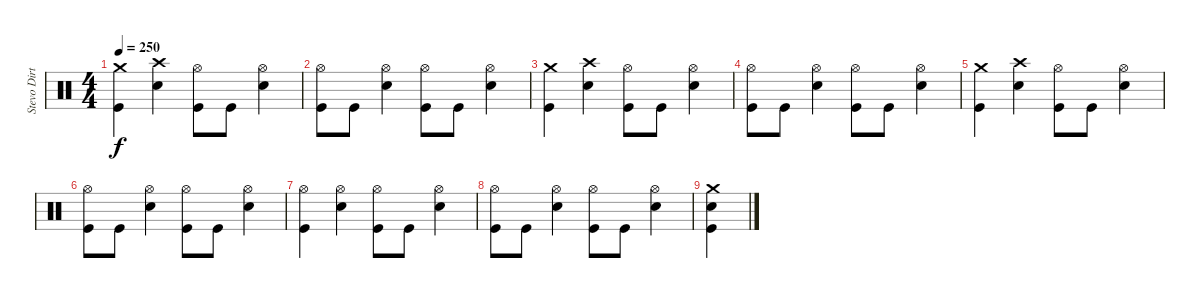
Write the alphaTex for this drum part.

\track ("Stevo Dirty Poo" "Stevo Dirt") {instrument percussion}
\staff {score}
\articulation defaults
\ts (4 4)
\tempo 250
\clef neutral
\ks c
("Crash medium (hit)" "Kick (hit)").4{dy f} ("Crash high (hit)" "Snare (hit) 2").4 ("Hi-Hat (open)" "Kick (hit)").8 "Kick (hit)".8 ("Hi-Hat (open)" "Snare (hit) 2").4 |
("Hi-Hat (open)" "Kick (hit)").8 "Kick (hit)".8 ("Hi-Hat (open)" "Snare (hit) 2").4 ("Hi-Hat (open)" "Kick (hit)").8 "Kick (hit)".8 ("Hi-Hat (open)" "Snare (hit) 2").4 |
("Crash medium (hit)" "Kick (hit)").4 ("Crash high (hit)" "Snare (hit) 2").4 ("Hi-Hat (open)" "Kick (hit)").8 "Kick (hit)".8 ("Hi-Hat (open)" "Snare (hit) 2").4 |
("Hi-Hat (open)" "Kick (hit)").8 "Kick (hit)".8 ("Hi-Hat (open)" "Snare (hit) 2").4 ("Hi-Hat (open)" "Kick (hit)").8 "Kick (hit)".8 ("Hi-Hat (open)" "Snare (hit) 2").4 |
("Crash medium (hit)" "Kick (hit)").4 ("Crash high (hit)" "Snare (hit) 2").4 ("Hi-Hat (open)" "Kick (hit)").8 "Kick (hit)".8 ("Hi-Hat (open)" "Snare (hit) 2").4 |
("Hi-Hat (open)" "Kick (hit)").8 "Kick (hit)".8 ("Hi-Hat (open)" "Snare (hit) 2").4 ("Hi-Hat (open)" "Kick (hit)").8 "Kick (hit)".8 ("Hi-Hat (open)" "Snare (hit) 2").4 |
("Hi-Hat (open)" "Kick (hit)").4 ("Hi-Hat (open)" "Snare (hit) 2").4 ("Hi-Hat (open)" "Kick (hit)").8 "Kick (hit)".8 ("Hi-Hat (open)" "Snare (hit) 2").4 |
("Hi-Hat (open)" "Kick (hit)").8 "Kick (hit)".8 ("Hi-Hat (open)" "Snare (hit) 2").4 ("Hi-Hat (open)" "Kick (hit)").8 "Kick (hit)".8 ("Hi-Hat (open)" "Snare (hit) 2").4 |
("Crash medium (hit)" "Snare (hit) 2" "Kick (hit)").4
